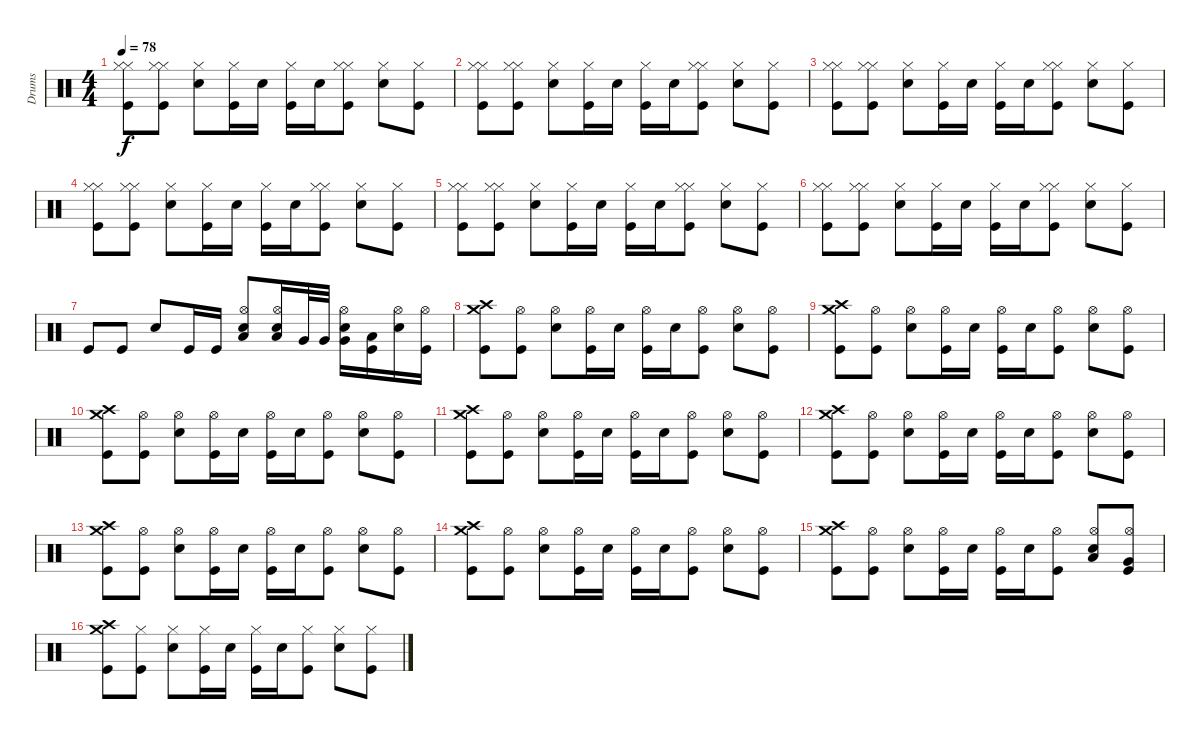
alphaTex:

\track ("Drums" "Drums") {instrument percussion}
\staff {score}
\articulation defaults
\ts (4 4)
\tempo 78
\clef neutral
\ks c
("Hi-Hat (closed)" "Hi-Hat (closed)" "Kick (hit)").8{dy f} ("Hi-Hat (closed)" "Hi-Hat (closed)" "Kick (hit)").8 ("Snare (hit) 2" "Hi-Hat (closed)").8 ("Hi-Hat (closed)" "Kick (hit)").16 "Snare (hit) 2".16 ("Hi-Hat (closed)" "Kick (hit)").16 "Snare (hit) 2".16 ("Hi-Hat (closed)" "Hi-Hat (closed)" "Kick (hit)").8 ("Snare (hit) 2" "Hi-Hat (closed)").8 ("Hi-Hat (closed)" "Kick (hit)").8 |
("Hi-Hat (closed)" "Hi-Hat (closed)" "Kick (hit)").8 ("Hi-Hat (closed)" "Hi-Hat (closed)" "Kick (hit)").8 ("Snare (hit) 2" "Hi-Hat (closed)").8 ("Hi-Hat (closed)" "Kick (hit)").16 "Snare (hit) 2".16 ("Hi-Hat (closed)" "Kick (hit)").16 "Snare (hit) 2".16 ("Hi-Hat (closed)" "Hi-Hat (closed)" "Kick (hit)").8 ("Snare (hit) 2" "Hi-Hat (closed)").8 ("Hi-Hat (closed)" "Kick (hit)").8 |
("Hi-Hat (closed)" "Hi-Hat (closed)" "Kick (hit)").8 ("Hi-Hat (closed)" "Hi-Hat (closed)" "Kick (hit)").8 ("Snare (hit) 2" "Hi-Hat (closed)").8 ("Hi-Hat (closed)" "Kick (hit)").16 "Snare (hit) 2".16 ("Hi-Hat (closed)" "Kick (hit)").16 "Snare (hit) 2".16 ("Hi-Hat (closed)" "Hi-Hat (closed)" "Kick (hit)").8 ("Snare (hit) 2" "Hi-Hat (closed)").8 ("Hi-Hat (closed)" "Kick (hit)").8 |
("Hi-Hat (closed)" "Hi-Hat (closed)" "Kick (hit)").8 ("Hi-Hat (closed)" "Hi-Hat (closed)" "Kick (hit)").8 ("Snare (hit) 2" "Hi-Hat (closed)").8 ("Hi-Hat (closed)" "Kick (hit)").16 "Snare (hit) 2".16 ("Hi-Hat (closed)" "Kick (hit)").16 "Snare (hit) 2".16 ("Hi-Hat (closed)" "Hi-Hat (closed)" "Kick (hit)").8 ("Snare (hit) 2" "Hi-Hat (closed)").8 ("Hi-Hat (closed)" "Kick (hit)").8 |
("Hi-Hat (closed)" "Hi-Hat (closed)" "Kick (hit)").8 ("Hi-Hat (closed)" "Hi-Hat (closed)" "Kick (hit)").8 ("Snare (hit) 2" "Hi-Hat (closed)").8 ("Hi-Hat (closed)" "Kick (hit)").16 "Snare (hit) 2".16 ("Hi-Hat (closed)" "Kick (hit)").16 "Snare (hit) 2".16 ("Hi-Hat (closed)" "Hi-Hat (closed)" "Kick (hit)").8 ("Snare (hit) 2" "Hi-Hat (closed)").8 ("Hi-Hat (closed)" "Kick (hit)").8 |
("Hi-Hat (closed)" "Hi-Hat (closed)" "Kick (hit)").8 ("Hi-Hat (closed)" "Hi-Hat (closed)" "Kick (hit)").8 ("Snare (hit) 2" "Hi-Hat (closed)").8 ("Hi-Hat (closed)" "Kick (hit)").16 "Snare (hit) 2".16 ("Hi-Hat (closed)" "Kick (hit)").16 "Snare (hit) 2".16 ("Hi-Hat (closed)" "Hi-Hat (closed)" "Kick (hit)").8 ("Snare (hit) 2" "Hi-Hat (closed)").8 ("Hi-Hat (closed)" "Kick (hit)").8 |
"Kick (hit)".8 "Kick (hit)".8 "Electric Snare (hit)".8 "Kick (hit)".16 "Kick (hit)".16 ("Hi-Hat (open)" "Snare (hit) 2" "Low Tom (hit)").8 ("Hi-Hat (open)" "Snare (hit) 2" "Low Floor Tom (hit)").16 "Very Low Tom (hit)".32 "Very Low Tom (hit)".32 ("Hi-Hat (open)" "Electric Snare (hit)" "Very Low Tom (hit)").16 ("Low Floor Tom (hit)" "Kick (hit)").16 ("Electric Snare (hit)" "Hi-Hat (open)").16 ("Hi-Hat (open)" "Kick (hit)").16 |
("Crash high (hit)" "Crash medium (hit)" "Kick (hit)").8 ("Hi-Hat (open)" "Kick (hit)").8 ("Electric Snare (hit)" "Hi-Hat (open)").8 ("Hi-Hat (open)" "Kick (hit)").16 "Electric Snare (hit)".16 ("Hi-Hat (open)" "Kick (hit)").16 "Electric Snare (hit)".16 ("Hi-Hat (open)" "Kick (hit)").8 ("Electric Snare (hit)" "Hi-Hat (open)").8 ("Hi-Hat (open)" "Kick (hit)").8 |
("Crash high (hit)" "Crash medium (hit)" "Kick (hit)").8 ("Hi-Hat (open)" "Kick (hit)").8 ("Electric Snare (hit)" "Hi-Hat (open)").8 ("Hi-Hat (open)" "Kick (hit)").16 "Electric Snare (hit)".16 ("Hi-Hat (open)" "Kick (hit)").16 "Electric Snare (hit)".16 ("Hi-Hat (open)" "Kick (hit)").8 ("Electric Snare (hit)" "Hi-Hat (open)").8 ("Hi-Hat (open)" "Kick (hit)").8 |
("Crash high (hit)" "Crash medium (hit)" "Kick (hit)").8 ("Hi-Hat (open)" "Kick (hit)").8 ("Electric Snare (hit)" "Hi-Hat (open)").8 ("Hi-Hat (open)" "Kick (hit)").16 "Electric Snare (hit)".16 ("Hi-Hat (open)" "Kick (hit)").16 "Electric Snare (hit)".16 ("Hi-Hat (open)" "Kick (hit)").8 ("Electric Snare (hit)" "Hi-Hat (open)").8 ("Hi-Hat (open)" "Kick (hit)").8 |
("Crash high (hit)" "Crash medium (hit)" "Kick (hit)").8 ("Hi-Hat (open)" "Kick (hit)").8 ("Electric Snare (hit)" "Hi-Hat (open)").8 ("Hi-Hat (open)" "Kick (hit)").16 "Electric Snare (hit)".16 ("Hi-Hat (open)" "Kick (hit)").16 "Electric Snare (hit)".16 ("Hi-Hat (open)" "Kick (hit)").8 ("Electric Snare (hit)" "Hi-Hat (open)").8 ("Hi-Hat (open)" "Kick (hit)").8 |
("Crash high (hit)" "Crash medium (hit)" "Kick (hit)").8 ("Hi-Hat (open)" "Kick (hit)").8 ("Electric Snare (hit)" "Hi-Hat (open)").8 ("Hi-Hat (open)" "Kick (hit)").16 "Electric Snare (hit)".16 ("Hi-Hat (open)" "Kick (hit)").16 "Electric Snare (hit)".16 ("Hi-Hat (open)" "Kick (hit)").8 ("Electric Snare (hit)" "Hi-Hat (open)").8 ("Hi-Hat (open)" "Kick (hit)").8 |
("Crash high (hit)" "Crash medium (hit)" "Kick (hit)").8 ("Hi-Hat (open)" "Kick (hit)").8 ("Electric Snare (hit)" "Hi-Hat (open)").8 ("Hi-Hat (open)" "Kick (hit)").16 "Electric Snare (hit)".16 ("Hi-Hat (open)" "Kick (hit)").16 "Electric Snare (hit)".16 ("Hi-Hat (open)" "Kick (hit)").8 ("Electric Snare (hit)" "Hi-Hat (open)").8 ("Hi-Hat (open)" "Kick (hit)").8 |
("Crash high (hit)" "Crash medium (hit)" "Kick (hit)").8 ("Hi-Hat (open)" "Kick (hit)").8 ("Electric Snare (hit)" "Hi-Hat (open)").8 ("Hi-Hat (open)" "Kick (hit)").16 "Electric Snare (hit)".16 ("Hi-Hat (open)" "Kick (hit)").16 "Electric Snare (hit)".16 ("Hi-Hat (open)" "Kick (hit)").8 ("Electric Snare (hit)" "Hi-Hat (open)").8 ("Hi-Hat (open)" "Kick (hit)").8 |
("Crash high (hit)" "Crash medium (hit)" "Kick (hit)").8 ("Hi-Hat (open)" "Kick (hit)").8 ("Electric Snare (hit)" "Hi-Hat (open)").8 ("Hi-Hat (open)" "Kick (hit)").16 "Electric Snare (hit)".16 ("Hi-Hat (open)" "Kick (hit)").16 "Electric Snare (hit)".16 ("Hi-Hat (open)" "Kick (hit)").8 ("Low Tom (hit)" "Electric Snare (hit)" "Hi-Hat (open)").8 ("Very Low Tom (hit)" "Hi-Hat (open)" "Kick (hit)").8 |
("Crash high (hit)" "Crash medium (hit)" "Kick (hit)").8 ("Hi-Hat (closed)" "Kick (hit)").8 ("Electric Snare (hit)" "Hi-Hat (closed)").8 ("Hi-Hat (closed)" "Kick (hit)").16 "Electric Snare (hit)".16 ("Hi-Hat (closed)" "Kick (hit)").16 "Electric Snare (hit)".16 ("Hi-Hat (closed)" "Kick (hit)").8 ("Electric Snare (hit)" "Hi-Hat (closed)").8 ("Hi-Hat (closed)" "Kick (hit)").8
